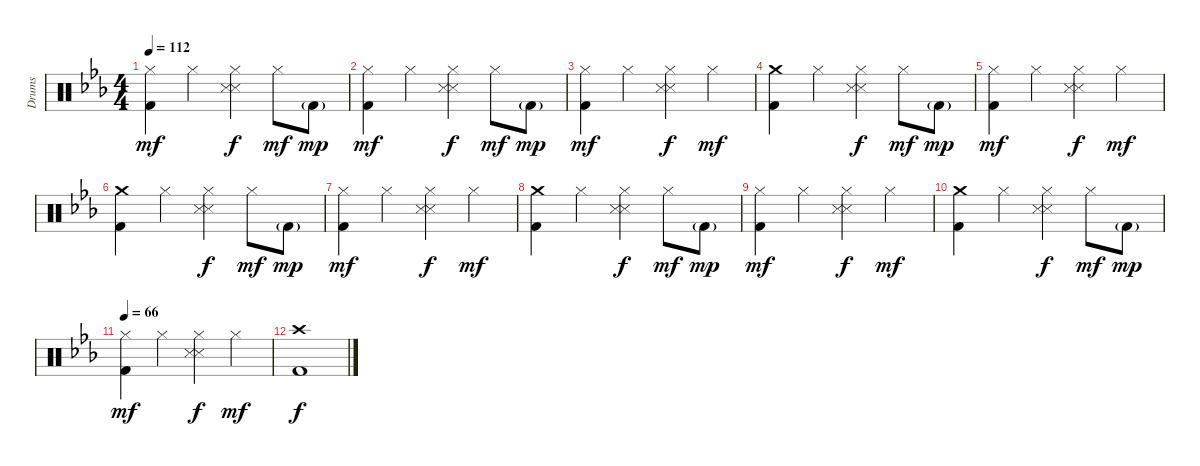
\track ("Drums" "Drums") {instrument percussion}
\staff {score}
\articulation defaults
\ts (4 4)
\tempo 112
\clef neutral
\ks cminor
("Hi-Hat (closed)" "Kick (hit) 2").4{dy mf} "Hi-Hat (closed)".4 ("Hi-Hat (closed)" "Snare (side stick) 3" "Metronome (hit)").4{dy f} "Hi-Hat (closed)".8{dy mf} "Kick (hit) 2"{g}.8{dy mp} |
("Hi-Hat (closed)" "Kick (hit) 2").4{dy mf} "Hi-Hat (closed)".4 ("Hi-Hat (closed)" "Snare (side stick) 3" "Metronome (hit)").4{dy f} "Hi-Hat (closed)".8{dy mf} "Kick (hit) 2"{g}.8{dy mp} |
("Hi-Hat (closed)" "Kick (hit) 2").4{dy mf} "Hi-Hat (closed)".4 ("Hi-Hat (closed)" "Snare (side stick) 3" "Metronome (hit)").4{dy f} "Hi-Hat (closed)".4{dy mf} |
("Crash medium (hit)" "Kick (hit) 2").4 "Hi-Hat (closed)".4 ("Hi-Hat (closed)" "Snare (side stick) 3" "Metronome (hit)").4{dy f} "Hi-Hat (closed)".8{dy mf} "Kick (hit) 2"{g}.8{dy mp} |
("Hi-Hat (closed)" "Kick (hit) 2").4{dy mf} "Hi-Hat (closed)".4 ("Hi-Hat (closed)" "Snare (side stick) 3" "Metronome (hit)").4{dy f} "Hi-Hat (closed)".4{dy mf} |
("Crash medium (hit)" "Kick (hit) 2").4 "Hi-Hat (closed)".4 ("Hi-Hat (closed)" "Snare (side stick) 3" "Metronome (hit)").4{dy f} "Hi-Hat (closed)".8{dy mf} "Kick (hit) 2"{g}.8{dy mp} |
("Hi-Hat (closed)" "Kick (hit) 2").4{dy mf} "Hi-Hat (closed)".4 ("Hi-Hat (closed)" "Snare (side stick) 3" "Metronome (hit)").4{dy f} "Hi-Hat (closed)".4{dy mf} |
("Crash medium (hit)" "Kick (hit) 2").4 "Hi-Hat (closed)".4 ("Hi-Hat (closed)" "Snare (side stick) 3" "Metronome (hit)").4{dy f} "Hi-Hat (closed)".8{dy mf} "Kick (hit) 2"{g}.8{dy mp} |
("Hi-Hat (closed)" "Kick (hit) 2").4{dy mf} "Hi-Hat (closed)".4 ("Hi-Hat (closed)" "Snare (side stick) 3" "Metronome (hit)").4{dy f} "Hi-Hat (closed)".4{dy mf} |
("Crash medium (hit)" "Kick (hit) 2").4 "Hi-Hat (closed)".4 ("Hi-Hat (closed)" "Snare (side stick) 3" "Metronome (hit)").4{dy f} "Hi-Hat (closed)".8{dy mf} "Kick (hit) 2"{g}.8{dy mp} |
\tempo 66
("Hi-Hat (closed)" "Kick (hit) 2").4{dy mf} "Hi-Hat (closed)".4 ("Hi-Hat (closed)" "Snare (side stick) 3" "Metronome (hit)").4{dy f} "Hi-Hat (closed)".4{dy mf} |
("Crash high (hit)" "Kick (hit) 2").1{dy f}
